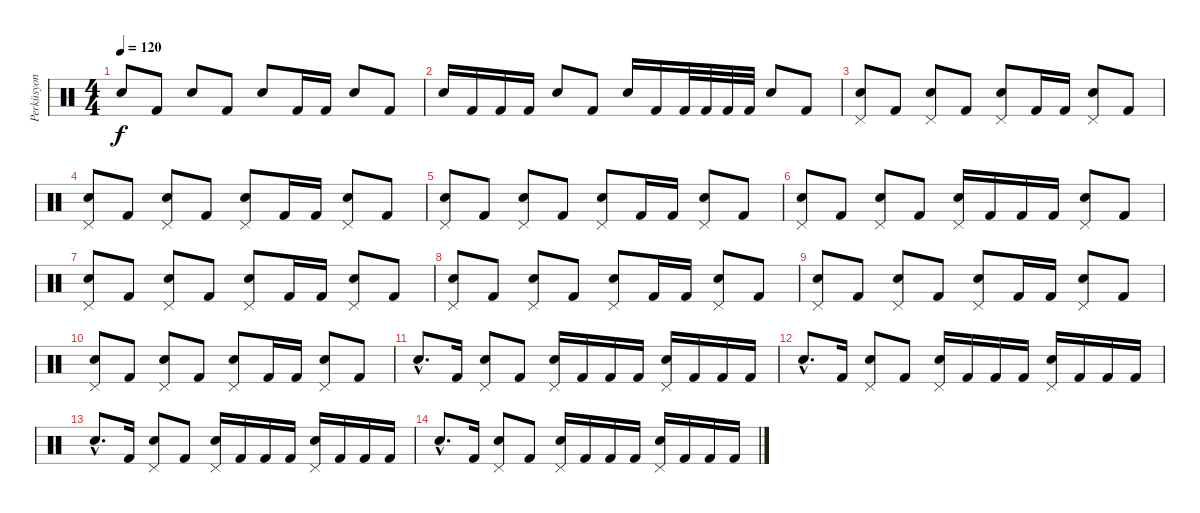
\track ("Perküsyon" "Perküsyon") {instrument percussion}
\staff {score}
\articulation defaults
\ts (4 4)
\tempo 120
\clef neutral
\ks c "Electric Snare (hit)".8{dy f} "Kick (hit) 2".8 "Electric Snare (hit)".8 "Kick (hit) 2".8 "Electric Snare (hit)".8 "Kick (hit) 2".16 "Kick (hit) 2".16 "Electric Snare (hit)".8 "Kick (hit) 2".8
|
"Electric Snare (hit)".16 "Kick (hit) 2".16 "Kick (hit) 2".16 "Kick (hit) 2".16 "Electric Snare (hit)".8 "Kick (hit) 2".8 "Electric Snare (hit)".16 "Kick (hit) 2".16 "Kick (hit) 2".32 "Kick (hit) 2".32 "Kick (hit) 2".32 "Kick (hit) 2".32 "Electric Snare (hit)".8 "Kick (hit) 2".8 |
("Pedal Hi-Hat (hit)" "Electric Snare (hit)").8 "Kick (hit) 2".8 ("Pedal Hi-Hat (hit)" "Electric Snare (hit)").8 "Kick (hit) 2".8 ("Pedal Hi-Hat (hit)" "Electric Snare (hit)").8 "Kick (hit) 2".16 "Kick (hit) 2".16 ("Pedal Hi-Hat (hit)" "Electric Snare (hit)").8 "Kick (hit) 2".8 |
("Pedal Hi-Hat (hit)" "Electric Snare (hit)").8 "Kick (hit) 2".8 ("Pedal Hi-Hat (hit)" "Electric Snare (hit)").8 "Kick (hit) 2".8 ("Pedal Hi-Hat (hit)" "Electric Snare (hit)").8 "Kick (hit) 2".16 "Kick (hit) 2".16 ("Pedal Hi-Hat (hit)" "Electric Snare (hit)").8 "Kick (hit) 2".8 |
("Pedal Hi-Hat (hit)" "Electric Snare (hit)").8 "Kick (hit) 2".8 ("Pedal Hi-Hat (hit)" "Electric Snare (hit)").8 "Kick (hit) 2".8 ("Pedal Hi-Hat (hit)" "Electric Snare (hit)").8 "Kick (hit) 2".16 "Kick (hit) 2".16 ("Pedal Hi-Hat (hit)" "Electric Snare (hit)").8 "Kick (hit) 2".8 |
("Pedal Hi-Hat (hit)" "Electric Snare (hit)").8 "Kick (hit) 2".8 ("Pedal Hi-Hat (hit)" "Electric Snare (hit)").8 "Kick (hit) 2".8 ("Pedal Hi-Hat (hit)" "Electric Snare (hit)").16 "Kick (hit) 2".16 "Kick (hit) 2".16 "Kick (hit) 2".16 ("Pedal Hi-Hat (hit)" "Electric Snare (hit)").8 "Kick (hit) 2".8 |
("Pedal Hi-Hat (hit)" "Electric Snare (hit)").8 "Kick (hit) 2".8 ("Pedal Hi-Hat (hit)" "Electric Snare (hit)").8 "Kick (hit) 2".8 ("Pedal Hi-Hat (hit)" "Electric Snare (hit)").8 "Kick (hit) 2".16 "Kick (hit) 2".16 ("Pedal Hi-Hat (hit)" "Electric Snare (hit)").8 "Kick (hit) 2".8 |
("Pedal Hi-Hat (hit)" "Electric Snare (hit)").8 "Kick (hit) 2".8 ("Pedal Hi-Hat (hit)" "Electric Snare (hit)").8 "Kick (hit) 2".8 ("Pedal Hi-Hat (hit)" "Electric Snare (hit)").8 "Kick (hit) 2".16 "Kick (hit) 2".16 ("Pedal Hi-Hat (hit)" "Electric Snare (hit)").8 "Kick (hit) 2".8 |
("Pedal Hi-Hat (hit)" "Electric Snare (hit)").8 "Kick (hit) 2".8 ("Pedal Hi-Hat (hit)" "Electric Snare (hit)").8 "Kick (hit) 2".8 ("Pedal Hi-Hat (hit)" "Electric Snare (hit)").8 "Kick (hit) 2".16 "Kick (hit) 2".16 ("Pedal Hi-Hat (hit)" "Electric Snare (hit)").8 "Kick (hit) 2".8 |
("Pedal Hi-Hat (hit)" "Electric Snare (hit)").8 "Kick (hit) 2".8 ("Pedal Hi-Hat (hit)" "Electric Snare (hit)").8 "Kick (hit) 2".8 ("Pedal Hi-Hat (hit)" "Electric Snare (hit)").8 "Kick (hit) 2".16 "Kick (hit) 2".16 ("Pedal Hi-Hat (hit)" "Electric Snare (hit)").8 "Kick (hit) 2".8 |
"Electric Snare (hit)"{hac}.8{d} "Kick (hit) 2".16 ("Pedal Hi-Hat (hit)" "Electric Snare (hit)").8 "Kick (hit) 2".8 ("Pedal Hi-Hat (hit)" "Electric Snare (hit)").16 "Kick (hit) 2".16 "Kick (hit) 2".16 "Kick (hit) 2".16 ("Pedal Hi-Hat (hit)" "Electric Snare (hit)").16 "Kick (hit) 2".16 "Kick (hit) 2".16 "Kick (hit) 2".16 |
"Electric Snare (hit)"{hac}.8{d} "Kick (hit) 2".16 ("Pedal Hi-Hat (hit)" "Electric Snare (hit)").8 "Kick (hit) 2".8 ("Pedal Hi-Hat (hit)" "Electric Snare (hit)").16 "Kick (hit) 2".16 "Kick (hit) 2".16 "Kick (hit) 2".16 ("Pedal Hi-Hat (hit)" "Electric Snare (hit)").16 "Kick (hit) 2".16 "Kick (hit) 2".16 "Kick (hit) 2".16 |
"Electric Snare (hit)"{hac}.8{d} "Kick (hit) 2".16 ("Pedal Hi-Hat (hit)" "Electric Snare (hit)").8 "Kick (hit) 2".8 ("Pedal Hi-Hat (hit)" "Electric Snare (hit)").16 "Kick (hit) 2".16 "Kick (hit) 2".16 "Kick (hit) 2".16 ("Pedal Hi-Hat (hit)" "Electric Snare (hit)").16 "Kick (hit) 2".16 "Kick (hit) 2".16 "Kick (hit) 2".16 |
"Electric Snare (hit)"{hac}.8{d} "Kick (hit) 2".16 ("Pedal Hi-Hat (hit)" "Electric Snare (hit)").8 "Kick (hit) 2".8 ("Pedal Hi-Hat (hit)" "Electric Snare (hit)").16 "Kick (hit) 2".16 "Kick (hit) 2".16 "Kick (hit) 2".16 ("Pedal Hi-Hat (hit)" "Electric Snare (hit)").16 "Kick (hit) 2".16 "Kick (hit) 2".16 "Kick (hit) 2".16
